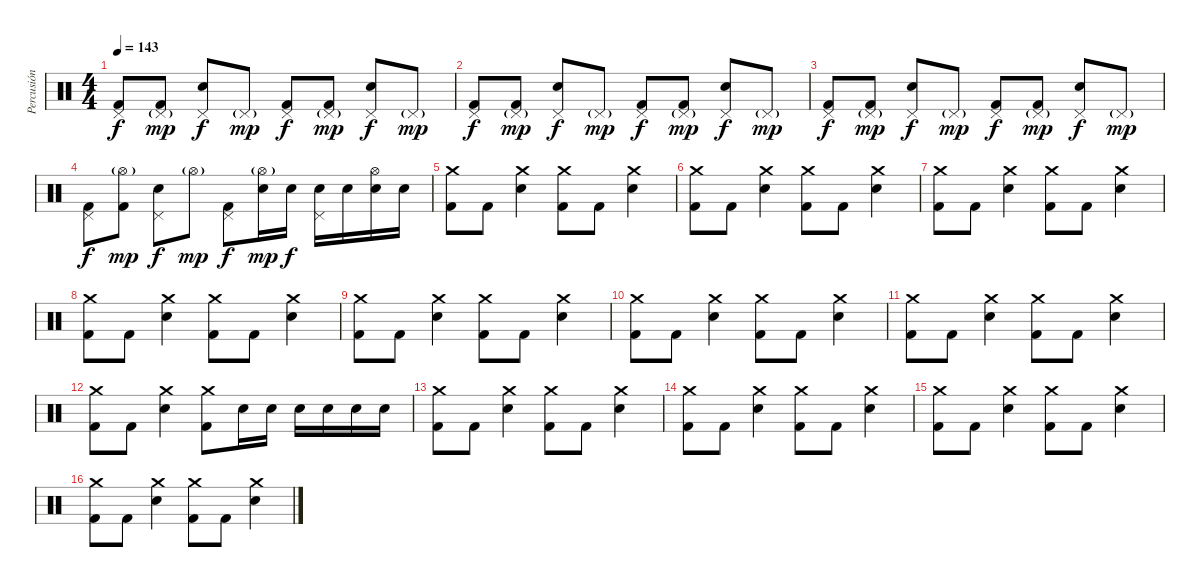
\track ("Percusión" "Percusión") {instrument percussion}
\staff {score}
\articulation defaults
\ts (4 4)
\tempo 143
\clef neutral
\ks c
("Pedal Hi-Hat (hit)" "Kick (hit) 2").8{dy f} ("Pedal Hi-Hat (hit)"{g} "Kick (hit) 2").8{dy mp} ("Pedal Hi-Hat (hit)" "Snare (hit) 2").8{dy f} "Pedal Hi-Hat (hit)"{g}.8{dy mp} ("Pedal Hi-Hat (hit)" "Kick (hit) 2").8{dy f} ("Pedal Hi-Hat (hit)"{g} "Kick (hit) 2").8{dy mp} ("Pedal Hi-Hat (hit)" "Snare (hit) 2").8{dy f} "Pedal Hi-Hat (hit)"{g}.8{dy mp} |
("Pedal Hi-Hat (hit)" "Kick (hit) 2").8{dy f} ("Pedal Hi-Hat (hit)"{g} "Kick (hit) 2").8{dy mp} ("Pedal Hi-Hat (hit)" "Snare (hit) 2").8{dy f} "Pedal Hi-Hat (hit)"{g}.8{dy mp} ("Pedal Hi-Hat (hit)" "Kick (hit) 2").8{dy f} ("Pedal Hi-Hat (hit)"{g} "Kick (hit) 2").8{dy mp} ("Pedal Hi-Hat (hit)" "Snare (hit) 2").8{dy f} "Pedal Hi-Hat (hit)"{g}.8{dy mp} |
("Pedal Hi-Hat (hit)" "Kick (hit) 2").8{dy f} ("Pedal Hi-Hat (hit)"{g} "Kick (hit) 2").8{dy mp} ("Pedal Hi-Hat (hit)" "Snare (hit) 2").8{dy f} "Pedal Hi-Hat (hit)"{g}.8{dy mp} ("Pedal Hi-Hat (hit)" "Kick (hit) 2").8{dy f} ("Pedal Hi-Hat (hit)"{g} "Kick (hit) 2").8{dy mp} ("Pedal Hi-Hat (hit)" "Snare (hit) 2").8{dy f} "Pedal Hi-Hat (hit)"{g}.8{dy mp} |
("Pedal Hi-Hat (hit)" "Kick (hit) 2").8{dy f} ("Hi-Hat (open)"{g} "Kick (hit) 2").8{dy mp} ("Pedal Hi-Hat (hit)" "Snare (hit) 2").8{dy f} "Hi-Hat (open)"{g}.8{dy mp} ("Pedal Hi-Hat (hit)" "Kick (hit) 2").8{dy f} ("Hi-Hat (open)"{g} "Snare (hit) 2").16{dy mp} "Snare (hit) 2".16{dy f} ("Pedal Hi-Hat (hit)" "Snare (hit) 2").16 "Snare (hit) 2".16 ("Hi-Hat (open)" "Snare (hit) 2").16 "Snare (hit) 2".16 |
("Crash medium (hit)" "Kick (hit) 2").8 "Kick (hit) 2".8 ("Crash medium (hit)" "Snare (hit) 2").4 ("Crash medium (hit)" "Kick (hit) 2").8 "Kick (hit) 2".8 ("Crash medium (hit)" "Snare (hit) 2").4 |
("Crash medium (hit)" "Kick (hit) 2").8 "Kick (hit) 2".8 ("Crash medium (hit)" "Snare (hit) 2").4 ("Crash medium (hit)" "Kick (hit) 2").8 "Kick (hit) 2".8 ("Crash medium (hit)" "Snare (hit) 2").4 |
("Crash medium (hit)" "Kick (hit) 2").8 "Kick (hit) 2".8 ("Crash medium (hit)" "Snare (hit) 2").4 ("Crash medium (hit)" "Kick (hit) 2").8 "Kick (hit) 2".8 ("Crash medium (hit)" "Snare (hit) 2").4 |
("Crash medium (hit)" "Kick (hit) 2").8 "Kick (hit) 2".8 ("Crash medium (hit)" "Snare (hit) 2").4 ("Crash medium (hit)" "Kick (hit) 2").8 "Kick (hit) 2".8 ("Crash medium (hit)" "Snare (hit) 2").4 |
("Crash medium (hit)" "Kick (hit) 2").8 "Kick (hit) 2".8 ("Crash medium (hit)" "Snare (hit) 2").4 ("Crash medium (hit)" "Kick (hit) 2").8 "Kick (hit) 2".8 ("Crash medium (hit)" "Snare (hit) 2").4 |
("Crash medium (hit)" "Kick (hit) 2").8 "Kick (hit) 2".8 ("Crash medium (hit)" "Snare (hit) 2").4 ("Crash medium (hit)" "Kick (hit) 2").8 "Kick (hit) 2".8 ("Crash medium (hit)" "Snare (hit) 2").4 |
("Crash medium (hit)" "Kick (hit) 2").8 "Kick (hit) 2".8 ("Crash medium (hit)" "Snare (hit) 2").4 ("Crash medium (hit)" "Kick (hit) 2").8 "Kick (hit) 2".8 ("Crash medium (hit)" "Snare (hit) 2").4 |
("Crash medium (hit)" "Kick (hit) 2").8 "Kick (hit) 2".8 ("Crash medium (hit)" "Snare (hit) 2").4 ("Crash medium (hit)" "Kick (hit) 2").8 "Snare (hit) 2".16 "Snare (hit) 2".16 "Snare (hit) 2".16 "Snare (hit) 2".16 "Snare (hit) 2".16 "Snare (hit) 2".16 |
("Crash medium (hit)" "Kick (hit) 2").8 "Kick (hit) 2".8 ("Crash medium (hit)" "Snare (hit) 2").4 ("Crash medium (hit)" "Kick (hit) 2").8 "Kick (hit) 2".8 ("Crash medium (hit)" "Snare (hit) 2").4 |
("Crash medium (hit)" "Kick (hit) 2").8 "Kick (hit) 2".8 ("Crash medium (hit)" "Snare (hit) 2").4 ("Crash medium (hit)" "Kick (hit) 2").8 "Kick (hit) 2".8 ("Crash medium (hit)" "Snare (hit) 2").4 |
("Crash medium (hit)" "Kick (hit) 2").8 "Kick (hit) 2".8 ("Crash medium (hit)" "Snare (hit) 2").4 ("Crash medium (hit)" "Kick (hit) 2").8 "Kick (hit) 2".8 ("Crash medium (hit)" "Snare (hit) 2").4 |
("Crash medium (hit)" "Kick (hit) 2").8 "Kick (hit) 2".8 ("Crash medium (hit)" "Snare (hit) 2").4 ("Crash medium (hit)" "Kick (hit) 2").8 "Kick (hit) 2".8 ("Crash medium (hit)" "Snare (hit) 2").4
